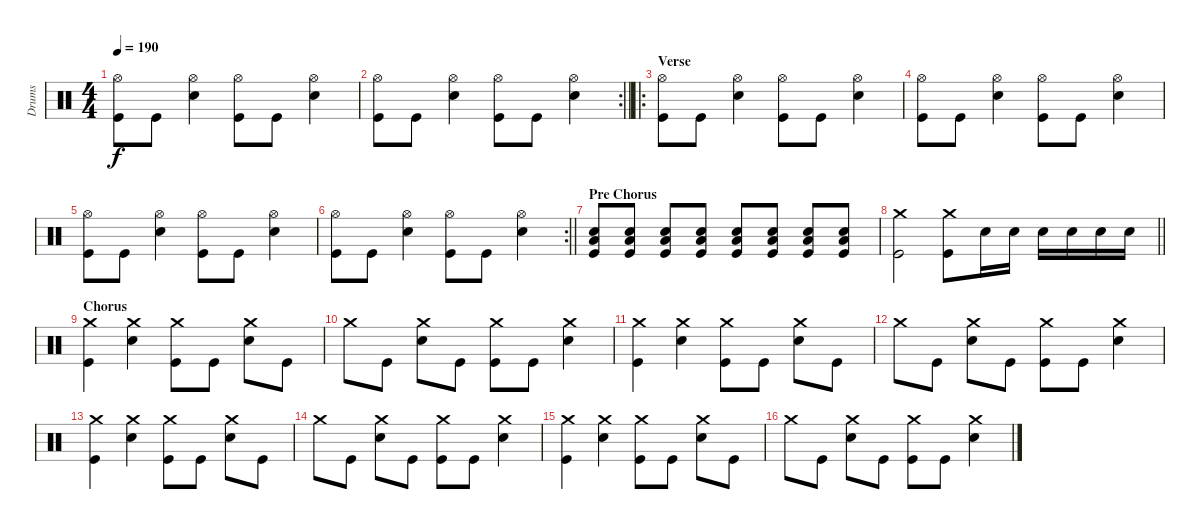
\track ("Drums" "Drums") {instrument percussion}
\staff {score}
\articulation defaults
\ts (4 4)
\tempo 190
\clef neutral
\ks c
("Hi-Hat (open)" "Kick (hit)").8{dy f} "Kick (hit)".8 ("Hi-Hat (open)" "Snare (hit) 2").4 ("Hi-Hat (open)" "Kick (hit)").8 "Kick (hit)".8 ("Hi-Hat (open)" "Snare (hit) 2").4 |
\rc 2
\barLineRight lightlight
("Hi-Hat (open)" "Kick (hit)").8 "Kick (hit)".8 ("Hi-Hat (open)" "Snare (hit) 2").4 ("Hi-Hat (open)" "Kick (hit)").8 "Kick (hit)".8 ("Hi-Hat (open)" "Snare (hit) 2").4 |
\ro
\section ("" "Verse")
("Hi-Hat (open)" "Kick (hit)").8 "Kick (hit)".8 ("Hi-Hat (open)" "Snare (hit) 2").4 ("Hi-Hat (open)" "Kick (hit)").8 "Kick (hit)".8 ("Hi-Hat (open)" "Snare (hit) 2").4 |
("Hi-Hat (open)" "Kick (hit)").8 "Kick (hit)".8 ("Hi-Hat (open)" "Snare (hit) 2").4 ("Hi-Hat (open)" "Kick (hit)").8 "Kick (hit)".8 ("Hi-Hat (open)" "Snare (hit) 2").4 |
("Hi-Hat (open)" "Kick (hit)").8 "Kick (hit)".8 ("Hi-Hat (open)" "Snare (hit) 2").4 ("Hi-Hat (open)" "Kick (hit)").8 "Kick (hit)".8 ("Hi-Hat (open)" "Snare (hit) 2").4 |
\rc 2
\barLineRight lightlight
("Hi-Hat (open)" "Kick (hit)").8 "Kick (hit)".8 ("Hi-Hat (open)" "Snare (hit) 2").4 ("Hi-Hat (open)" "Kick (hit)").8 "Kick (hit)".8 ("Hi-Hat (open)" "Snare (hit) 2").4 |
\section ("" "Pre Chorus")
("Snare (hit) 2" "Low Floor Tom (hit)" "Kick (hit)").8 ("Snare (hit) 2" "Low Floor Tom (hit)" "Kick (hit)").8 ("Snare (hit) 2" "Low Floor Tom (hit)" "Kick (hit)").8 ("Snare (hit) 2" "Low Floor Tom (hit)" "Kick (hit)").8 ("Snare (hit) 2" "Low Floor Tom (hit)" "Kick (hit)").8 ("Snare (hit) 2" "Low Floor Tom (hit)" "Kick (hit)").8 ("Snare (hit) 2" "Low Floor Tom (hit)" "Kick (hit)").8 ("Snare (hit) 2" "Low Floor Tom (hit)" "Kick (hit)").8 |
\barLineRight lightlight
("Crash medium (hit)" "Kick (hit)").2 ("Crash medium (hit)" "Kick (hit)").8 "Snare (hit) 2".16 "Snare (hit) 2".16 "Snare (hit) 2".16 "Snare (hit) 2".16 "Snare (hit) 2".16 "Snare (hit) 2".16 |
\section ("" "Chorus")
("Crash medium (hit)" "Kick (hit)").4 ("Crash medium (hit)" "Snare (hit) 2").4 ("Crash medium (hit)" "Kick (hit)").8 "Kick (hit)".8 ("Crash medium (hit)" "Snare (hit) 2").8 "Kick (hit)".8 |
"Crash medium (hit)".8 "Kick (hit)".8 ("Crash medium (hit)" "Snare (hit) 2").8 "Kick (hit)".8 ("Crash medium (hit)" "Kick (hit)").8 "Kick (hit)".8 ("Crash medium (hit)" "Snare (hit) 2").4 |
("Crash medium (hit)" "Kick (hit)").4 ("Crash medium (hit)" "Snare (hit) 2").4 ("Crash medium (hit)" "Kick (hit)").8 "Kick (hit)".8 ("Crash medium (hit)" "Snare (hit) 2").8 "Kick (hit)".8 |
"Crash medium (hit)".8 "Kick (hit)".8 ("Crash medium (hit)" "Snare (hit) 2").8 "Kick (hit)".8 ("Crash medium (hit)" "Kick (hit)").8 "Kick (hit)".8 ("Crash medium (hit)" "Snare (hit) 2").4 |
("Crash medium (hit)" "Kick (hit)").4 ("Crash medium (hit)" "Snare (hit) 2").4 ("Crash medium (hit)" "Kick (hit)").8 "Kick (hit)".8 ("Crash medium (hit)" "Snare (hit) 2").8 "Kick (hit)".8 |
"Crash medium (hit)".8 "Kick (hit)".8 ("Crash medium (hit)" "Snare (hit) 2").8 "Kick (hit)".8 ("Crash medium (hit)" "Kick (hit)").8 "Kick (hit)".8 ("Crash medium (hit)" "Snare (hit) 2").4 |
("Crash medium (hit)" "Kick (hit)").4 ("Crash medium (hit)" "Snare (hit) 2").4 ("Crash medium (hit)" "Kick (hit)").8 "Kick (hit)".8 ("Crash medium (hit)" "Snare (hit) 2").8 "Kick (hit)".8 |
"Crash medium (hit)".8 "Kick (hit)".8 ("Crash medium (hit)" "Snare (hit) 2").8 "Kick (hit)".8 ("Crash medium (hit)" "Kick (hit)").8 "Kick (hit)".8 ("Crash medium (hit)" "Snare (hit) 2").4
